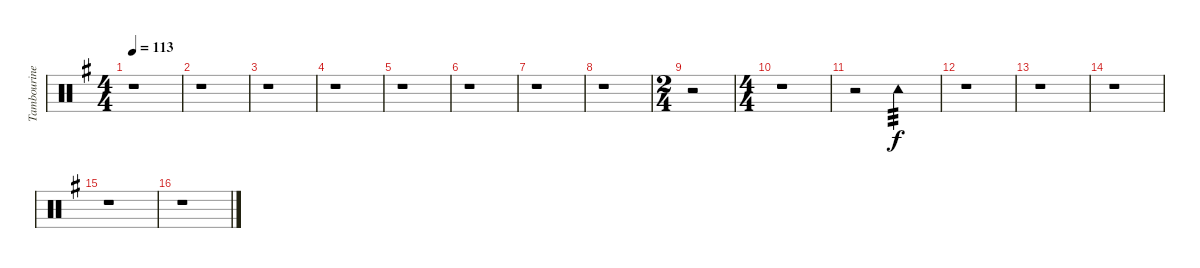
\track ("Tambourine" "Tambourine") {instrument percussion}
\staff {score}
\articulation defaults
\ts (4 4)
\tempo 113
\clef neutral
\ks eminor
r.1{dy f} |
r.1 |
r.1 |
r.1 |
r.1 |
r.1 |
r.1 |
r.1 |
\ts (2 4)
r.2 |
\ts (4 4)
r.1 |
r.2 "Tambourine (hit)".2{tp 3} |
r.1 |
r.1 |
r.1 |
r.1 |
r.1
